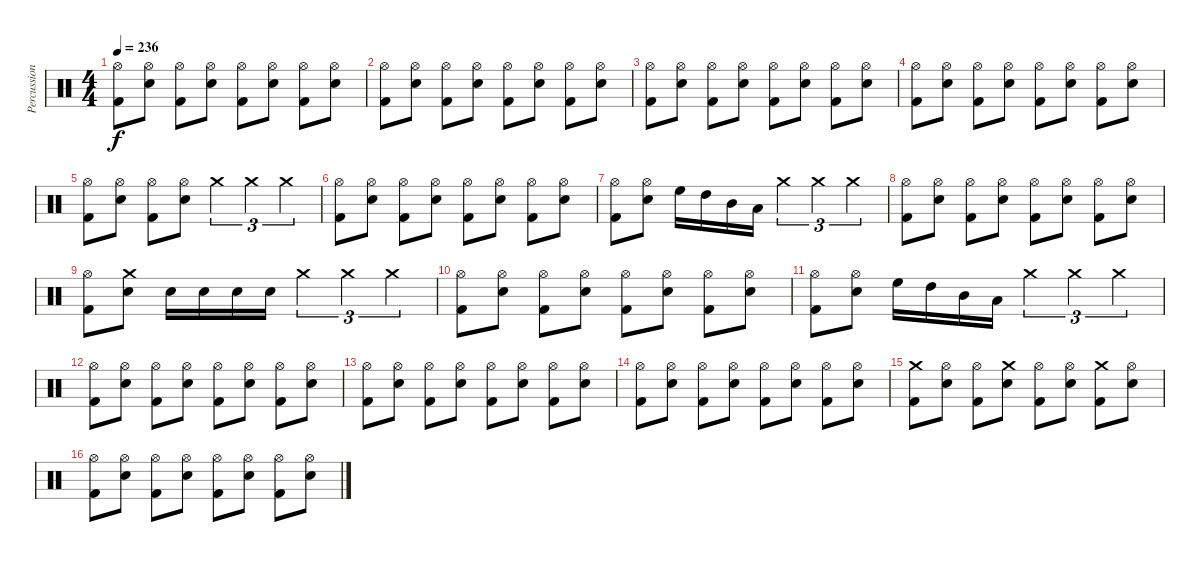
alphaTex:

\track ("Percussion" "Percussion") {instrument percussion}
\staff {score}
\articulation defaults
\ts (4 4)
\tempo 236
\clef neutral
\ks c
("Hi-Hat (open)" "Kick (hit) 2").8{dy f} ("Hi-Hat (open)" "Snare (hit) 2").8 ("Hi-Hat (open)" "Kick (hit) 2").8 ("Hi-Hat (open)" "Snare (hit) 2").8 ("Hi-Hat (open)" "Kick (hit) 2").8 ("Hi-Hat (open)" "Snare (hit) 2").8 ("Hi-Hat (open)" "Kick (hit) 2").8 ("Hi-Hat (open)" "Snare (hit) 2").8 |
("Hi-Hat (open)" "Kick (hit) 2").8 ("Hi-Hat (open)" "Snare (hit) 2").8 ("Hi-Hat (open)" "Kick (hit) 2").8 ("Hi-Hat (open)" "Snare (hit) 2").8 ("Hi-Hat (open)" "Kick (hit) 2").8 ("Hi-Hat (open)" "Snare (hit) 2").8 ("Hi-Hat (open)" "Kick (hit) 2").8 ("Hi-Hat (open)" "Snare (hit) 2").8 |
("Hi-Hat (open)" "Kick (hit) 2").8 ("Hi-Hat (open)" "Snare (hit) 2").8 ("Hi-Hat (open)" "Kick (hit) 2").8 ("Hi-Hat (open)" "Snare (hit) 2").8 ("Hi-Hat (open)" "Kick (hit) 2").8 ("Hi-Hat (open)" "Snare (hit) 2").8 ("Hi-Hat (open)" "Kick (hit) 2").8 ("Hi-Hat (open)" "Snare (hit) 2").8 |
("Hi-Hat (open)" "Kick (hit) 2").8 ("Hi-Hat (open)" "Snare (hit) 2").8 ("Hi-Hat (open)" "Kick (hit) 2").8 ("Hi-Hat (open)" "Snare (hit) 2").8 ("Hi-Hat (open)" "Kick (hit) 2").8 ("Hi-Hat (open)" "Snare (hit) 2").8 ("Hi-Hat (open)" "Kick (hit) 2").8 ("Hi-Hat (open)" "Snare (hit) 2").8 |
("Hi-Hat (open)" "Kick (hit) 2").8 ("Hi-Hat (open)" "Snare (hit) 2").8 ("Hi-Hat (open)" "Kick (hit) 2").8 ("Hi-Hat (open)" "Snare (hit) 2").8 "Crash medium (hit)".4{tu (3 2)} "Crash medium (hit)".4{tu (3 2)} "Crash medium (hit)".4{tu (3 2)} |
("Hi-Hat (open)" "Kick (hit) 2").8 ("Hi-Hat (open)" "Snare (hit) 2").8 ("Hi-Hat (open)" "Kick (hit) 2").8 ("Hi-Hat (open)" "Snare (hit) 2").8 ("Hi-Hat (open)" "Kick (hit) 2").8 ("Hi-Hat (open)" "Snare (hit) 2").8 ("Hi-Hat (open)" "Kick (hit) 2").8 ("Hi-Hat (open)" "Snare (hit) 2").8 |
("Hi-Hat (open)" "Kick (hit) 2").8 ("Hi-Hat (open)" "Snare (hit) 2").8 "High Floor Tom (hit)".16 "High Tom (hit)".16 "Mid Tom (hit)".16 "Low Tom (hit)".16 "Crash medium (hit)".4{tu (3 2)} "Crash medium (hit)".4{tu (3 2)} "Crash medium (hit)".4{tu (3 2)} |
("Hi-Hat (open)" "Kick (hit) 2").8 ("Hi-Hat (open)" "Snare (hit) 2").8 ("Hi-Hat (open)" "Kick (hit) 2").8 ("Hi-Hat (open)" "Snare (hit) 2").8 ("Hi-Hat (open)" "Kick (hit) 2").8 ("Hi-Hat (open)" "Snare (hit) 2").8 ("Hi-Hat (open)" "Kick (hit) 2").8 ("Hi-Hat (open)" "Snare (hit) 2").8 |
("Hi-Hat (open)" "Kick (hit) 2").8 ("Crash medium (hit)" "Snare (hit) 2").8 "Snare (hit) 2".16 "Snare (hit) 2".16 "Snare (hit) 2".16 "Snare (hit) 2".16 "Crash medium (hit)".4{tu (3 2)} "Crash medium (hit)".4{tu (3 2)} "Crash medium (hit)".4{tu (3 2)} |
("Hi-Hat (open)" "Kick (hit) 2").8 ("Hi-Hat (open)" "Snare (hit) 2").8 ("Hi-Hat (open)" "Kick (hit) 2").8 ("Hi-Hat (open)" "Snare (hit) 2").8 ("Hi-Hat (open)" "Kick (hit) 2").8 ("Hi-Hat (open)" "Snare (hit) 2").8 ("Hi-Hat (open)" "Kick (hit) 2").8 ("Hi-Hat (open)" "Snare (hit) 2").8 |
("Hi-Hat (open)" "Kick (hit) 2").8 ("Hi-Hat (open)" "Snare (hit) 2").8 "High Floor Tom (hit)".16 "High Tom (hit)".16 "Mid Tom (hit)".16 "Low Tom (hit)".16 "Crash medium (hit)".4{tu (3 2)} "Crash medium (hit)".4{tu (3 2)} "Crash medium (hit)".4{tu (3 2)} |
("Hi-Hat (open)" "Kick (hit) 2").8 ("Hi-Hat (open)" "Snare (hit) 2").8 ("Hi-Hat (open)" "Kick (hit) 2").8 ("Hi-Hat (open)" "Snare (hit) 2").8 ("Hi-Hat (open)" "Kick (hit) 2").8 ("Hi-Hat (open)" "Snare (hit) 2").8 ("Hi-Hat (open)" "Kick (hit) 2").8 ("Hi-Hat (open)" "Snare (hit) 2").8 |
("Hi-Hat (open)" "Kick (hit) 2").8 ("Hi-Hat (open)" "Snare (hit) 2").8 ("Hi-Hat (open)" "Kick (hit) 2").8 ("Hi-Hat (open)" "Snare (hit) 2").8 ("Hi-Hat (open)" "Kick (hit) 2").8 ("Hi-Hat (open)" "Snare (hit) 2").8 ("Hi-Hat (open)" "Kick (hit) 2").8 ("Hi-Hat (open)" "Snare (hit) 2").8 |
("Hi-Hat (open)" "Kick (hit) 2").8 ("Hi-Hat (open)" "Snare (hit) 2").8 ("Hi-Hat (open)" "Kick (hit) 2").8 ("Hi-Hat (open)" "Snare (hit) 2").8 ("Hi-Hat (open)" "Kick (hit) 2").8 ("Hi-Hat (open)" "Snare (hit) 2").8 ("Hi-Hat (open)" "Kick (hit) 2").8 ("Hi-Hat (open)" "Snare (hit) 2").8 |
("Crash medium (hit)" "Kick (hit) 2").8 ("Hi-Hat (open)" "Snare (hit) 2").8 ("Hi-Hat (open)" "Kick (hit) 2").8 ("Crash medium (hit)" "Snare (hit) 2").8 ("Hi-Hat (open)" "Kick (hit) 2").8 ("Hi-Hat (open)" "Snare (hit) 2").8 ("Crash medium (hit)" "Kick (hit) 2").8 ("Hi-Hat (open)" "Snare (hit) 2").8 |
("Hi-Hat (open)" "Kick (hit) 2").8 ("Hi-Hat (open)" "Snare (hit) 2").8 ("Hi-Hat (open)" "Kick (hit) 2").8 ("Hi-Hat (open)" "Snare (hit) 2").8 ("Hi-Hat (open)" "Kick (hit) 2").8 ("Hi-Hat (open)" "Snare (hit) 2").8 ("Hi-Hat (open)" "Kick (hit) 2").8 ("Hi-Hat (open)" "Snare (hit) 2").8
